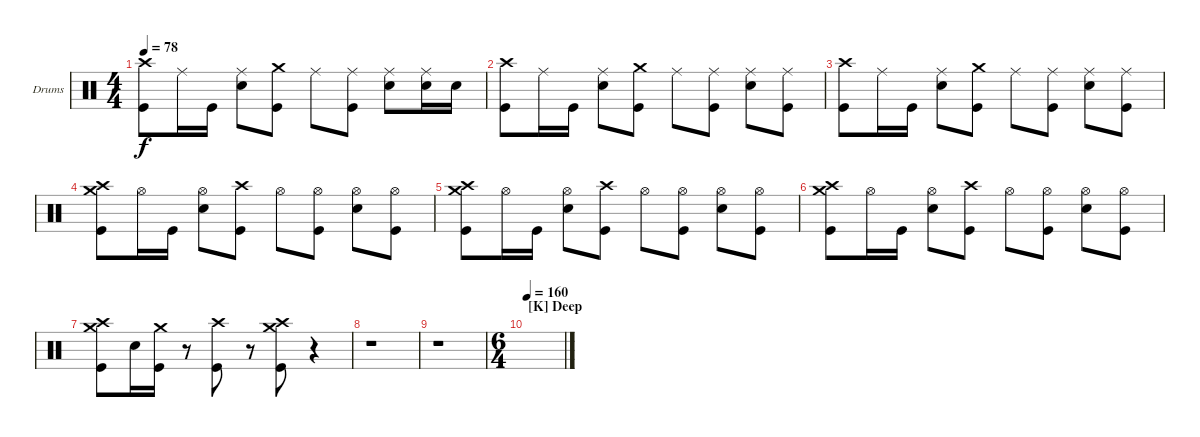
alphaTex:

\defaultSystemsLayout 4
\bracketExtendMode nobrackets
\firstSystemTrackNameOrientation horizontal
\otherSystemsTrackNameOrientation horizontal
\track ("Dave Krusen" "Drums") {instrument percussion}
\staff {score}
\articulation defaults
\ts (4 4)
\tempo 78
\clef neutral
\ks c
("Crash high (hit)" "Kick (hit)").8{dy f} "Ride (middle)".16 "Kick (hit)".16 ("Ride (middle)" "Snare (hit) 2").8 ("Crash medium (hit)" "Kick (hit)").8 "Ride (middle)".8 ("Ride (middle)" "Kick (hit)").8 ("Ride (middle)" "Snare (hit) 2").8 ("Ride (middle)" "Snare (hit) 2").16 "Snare (hit) 2".16 |
("Crash high (hit)" "Kick (hit)").8 "Ride (middle)".16 "Kick (hit)".16 ("Ride (middle)" "Snare (hit) 2").8 ("Crash medium (hit)" "Kick (hit)").8 "Ride (middle)".8 ("Ride (middle)" "Kick (hit)").8 ("Ride (middle)" "Snare (hit) 2").8 ("Ride (middle)" "Kick (hit)").8 |
("Crash high (hit)" "Kick (hit)").8 "Ride (middle)".16 "Kick (hit)".16 ("Ride (middle)" "Snare (hit) 2").8 ("Crash medium (hit)" "Kick (hit)").8 "Ride (middle)".8 ("Ride (middle)" "Kick (hit)").8 ("Ride (middle)" "Snare (hit) 2").8 ("Ride (middle)" "Kick (hit)").8 |
("Crash high (hit)" "Crash medium (hit)" "Kick (hit)").8 "Hi-Hat (open)".16 "Kick (hit)".16 ("Hi-Hat (open)" "Snare (hit) 2").8 ("Crash high (hit)" "Kick (hit)").8 "Hi-Hat (open)".8 ("Hi-Hat (open)" "Kick (hit)").8 ("Hi-Hat (open)" "Snare (hit) 2").8 ("Hi-Hat (open)" "Kick (hit)").8 |
("Crash high (hit)" "Crash medium (hit)" "Kick (hit)").8 "Hi-Hat (open)".16 "Kick (hit)".16 ("Hi-Hat (open)" "Snare (hit) 2").8 ("Crash high (hit)" "Kick (hit)").8 "Hi-Hat (open)".8 ("Hi-Hat (open)" "Kick (hit)").8 ("Hi-Hat (open)" "Snare (hit) 2").8 ("Hi-Hat (open)" "Kick (hit)").8 |
("Crash high (hit)" "Crash medium (hit)" "Kick (hit)").8 "Hi-Hat (open)".16 "Kick (hit)".16 ("Hi-Hat (open)" "Snare (hit) 2").8 ("Crash high (hit)" "Kick (hit)").8 "Hi-Hat (open)".8 ("Hi-Hat (open)" "Kick (hit)").8 ("Hi-Hat (open)" "Snare (hit) 2").8 ("Hi-Hat (open)" "Kick (hit)").8 |
("Crash high (hit)" "Crash medium (hit)" "Kick (hit)").8 "Snare (hit) 2".16 ("Crash medium (hit)" "Kick (hit)").16 r.8 ("Crash high (hit)" "Kick (hit)").8 r.8 ("Crash high (hit)" "Crash medium (hit)" "Kick (hit)").8 r.4 |
r.1 |
r.1 |
\ts (6 4)
\section ("K" "Deep")
\tempo 160
